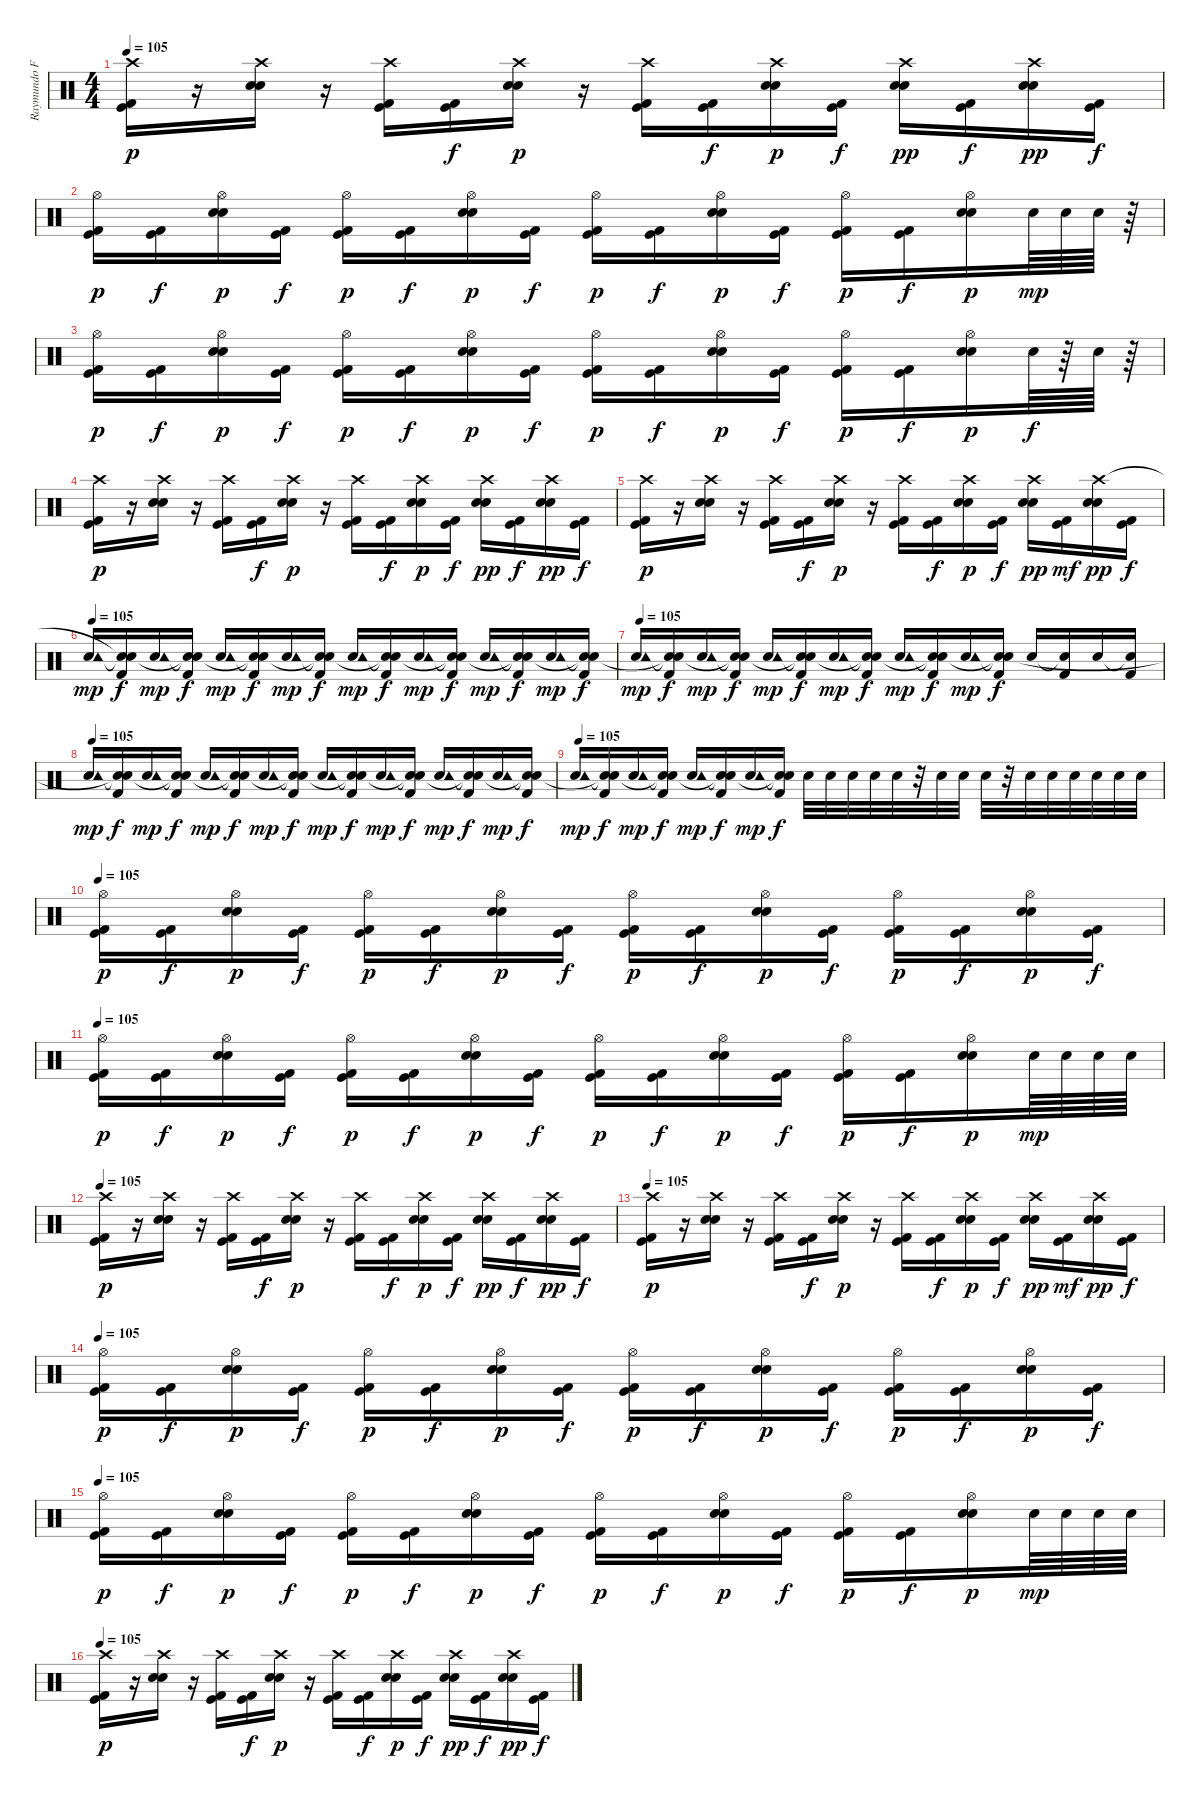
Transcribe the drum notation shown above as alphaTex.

\track ("Raymundo Fajardo (Bateria)" "Raymundo F") {instrument percussion}
\staff {score}
\articulation defaults
\ts (4 4)
\tempo 105
\clef neutral
\ks c
("Kick (hit)" "Kick (hit) 2" "Crash high (hit)").16{dy p} r.16 ("Electric Snare (hit)" "Snare (hit) 2" "Crash high (hit)").16 r.16 ("Kick (hit)" "Kick (hit) 2" "Crash high (hit)").16 ("Kick (hit)" "Kick (hit) 2").16{dy f} ("Electric Snare (hit)" "Snare (hit) 2" "Crash high (hit)").16{dy p} r.16 ("Kick (hit)" "Kick (hit) 2" "Crash high (hit)").16 ("Kick (hit)" "Kick (hit) 2").16{dy f} ("Electric Snare (hit)" "Snare (hit) 2" "Crash high (hit)").16{dy p} ("Kick (hit)" "Kick (hit) 2").16{dy f} ("Electric Snare (hit)" "Snare (hit) 2" "Crash high (hit)").16{dy pp} ("Kick (hit)" "Kick (hit) 2").16{dy f} ("Electric Snare (hit)" "Snare (hit) 2" "Crash high (hit)").16{dy pp} ("Kick (hit)" "Kick (hit) 2").16{dy f} |
("Kick (hit) 2" "Kick (hit)" "Hi-Hat (open)").16{dy p} ("Kick (hit) 2" "Kick (hit)").16{dy f} ("Electric Snare (hit)" "Snare (hit) 2" "Hi-Hat (open)").16{dy p} ("Kick (hit) 2" "Kick (hit)").16{dy f} ("Kick (hit) 2" "Kick (hit)" "Hi-Hat (open)").16{dy p} ("Kick (hit) 2" "Kick (hit)").16{dy f} ("Electric Snare (hit)" "Snare (hit) 2" "Hi-Hat (open)").16{dy p} ("Kick (hit) 2" "Kick (hit)").16{dy f} ("Kick (hit) 2" "Kick (hit)" "Hi-Hat (open)").16{dy p} ("Kick (hit) 2" "Kick (hit)").16{dy f} ("Electric Snare (hit)" "Snare (hit) 2" "Hi-Hat (open)").16{dy p} ("Kick (hit) 2" "Kick (hit)").16{dy f} ("Kick (hit) 2" "Kick (hit)" "Hi-Hat (open)").16{dy p} ("Kick (hit) 2" "Kick (hit)").16{dy f} ("Electric Snare (hit)" "Snare (hit) 2" "Hi-Hat (open)").16{dy p} "Electric Snare (hit)".64{dy mp} "Electric Snare (hit)".64 "Electric Snare (hit)".64 r.64 |
("Kick (hit) 2" "Kick (hit)" "Hi-Hat (open)").16{dy p} ("Kick (hit) 2" "Kick (hit)").16{dy f} ("Electric Snare (hit)" "Snare (hit) 2" "Hi-Hat (open)").16{dy p} ("Kick (hit) 2" "Kick (hit)").16{dy f} ("Kick (hit) 2" "Kick (hit)" "Hi-Hat (open)").16{dy p} ("Kick (hit) 2" "Kick (hit)").16{dy f} ("Electric Snare (hit)" "Snare (hit) 2" "Hi-Hat (open)").16{dy p} ("Kick (hit) 2" "Kick (hit)").16{dy f} ("Kick (hit) 2" "Kick (hit)" "Hi-Hat (open)").16{dy p} ("Kick (hit) 2" "Kick (hit)").16{dy f} ("Electric Snare (hit)" "Snare (hit) 2" "Hi-Hat (open)").16{dy p} ("Kick (hit) 2" "Kick (hit)").16{dy f} ("Kick (hit) 2" "Kick (hit)" "Hi-Hat (open)").16{dy p} ("Kick (hit) 2" "Kick (hit)").16{dy f} ("Electric Snare (hit)" "Snare (hit) 2" "Hi-Hat (open)").16{dy p} "Electric Snare (hit)".64{dy f} r.64 "Electric Snare (hit)".64 r.64 |
("Kick (hit)" "Kick (hit) 2" "Crash high (hit)").16{dy p} r.16 ("Electric Snare (hit)" "Snare (hit) 2" "Crash high (hit)").16 r.16 ("Kick (hit)" "Kick (hit) 2" "Crash high (hit)").16 ("Kick (hit)" "Kick (hit) 2").16{dy f} ("Electric Snare (hit)" "Snare (hit) 2" "Crash high (hit)").16{dy p} r.16 ("Kick (hit)" "Kick (hit) 2" "Crash high (hit)").16 ("Kick (hit)" "Kick (hit) 2").16{dy f} ("Electric Snare (hit)" "Snare (hit) 2" "Crash high (hit)").16{dy p} ("Kick (hit)" "Kick (hit) 2").16{dy f} ("Electric Snare (hit)" "Snare (hit) 2" "Crash high (hit)").16{dy pp} ("Kick (hit)" "Kick (hit) 2").16{dy f} ("Electric Snare (hit)" "Snare (hit) 2" "Crash high (hit)").16{dy pp} ("Kick (hit)" "Kick (hit) 2").16{dy f} |
("Kick (hit)" "Kick (hit) 2" "Crash high (hit)").16{dy p} r.16 ("Electric Snare (hit)" "Snare (hit) 2" "Crash high (hit)").16 r.16 ("Kick (hit)" "Kick (hit) 2" "Crash high (hit)").16 ("Kick (hit)" "Kick (hit) 2").16{dy f} ("Electric Snare (hit)" "Snare (hit) 2" "Crash high (hit)").16{dy p} r.16 ("Kick (hit)" "Kick (hit) 2" "Crash high (hit)").16 ("Kick (hit)" "Kick (hit) 2").16{dy f} ("Electric Snare (hit)" "Snare (hit) 2" "Crash high (hit)").16{dy p} ("Kick (hit)" "Kick (hit) 2").16{dy f} ("Electric Snare (hit)" "Snare (hit) 2" "Crash high (hit)").16{dy pp} ("Kick (hit)" "Kick (hit) 2").16{dy mf} ("Electric Snare (hit)" "Snare (hit) 2" "Crash high (hit)").16{dy pp} ("Kick (hit)" "Kick (hit) 2").16{dy f} |
\tempo 105
("Electric Snare (hit)" "Tambourine (hit)").16{dy mp} ("Snare (hit)"{t} "Kick (hit) 2" "Snare (hit)"{t}).16{dy f} ("Electric Snare (hit)" "Tambourine (hit)").16{dy mp} ("Snare (hit)"{t} "Kick (hit) 2" "Snare (hit)"{t}).16{dy f} ("Electric Snare (hit)" "Tambourine (hit)").16{dy mp} ("Snare (hit)"{t} "Kick (hit) 2" "Snare (hit)"{t}).16{dy f} ("Electric Snare (hit)" "Tambourine (hit)").16{dy mp} ("Snare (hit)"{t} "Kick (hit) 2" "Snare (hit)"{t}).16{dy f} ("Electric Snare (hit)" "Tambourine (hit)").16{dy mp} ("Snare (hit)"{t} "Kick (hit) 2" "Snare (hit)"{t}).16{dy f} ("Electric Snare (hit)" "Tambourine (hit)").16{dy mp} ("Snare (hit)"{t} "Kick (hit) 2" "Snare (hit)"{t}).16{dy f} ("Electric Snare (hit)" "Tambourine (hit)").16{dy mp} ("Snare (hit)"{t} "Kick (hit) 2" "Snare (hit)"{t}).16{dy f} ("Electric Snare (hit)" "Tambourine (hit)").16{dy mp} ("Snare (hit)"{t} "Kick (hit) 2" "Snare (hit)"{t}).16{dy f} |
\tempo 105
("Electric Snare (hit)" "Tambourine (hit)").16{dy mp} ("Snare (hit)"{t} "Kick (hit) 2" "Snare (hit)"{t}).16{dy f} ("Electric Snare (hit)" "Tambourine (hit)").16{dy mp} ("Snare (hit)"{t} "Kick (hit) 2" "Snare (hit)"{t}).16{dy f} ("Electric Snare (hit)" "Tambourine (hit)").16{dy mp} ("Snare (hit)"{t} "Kick (hit) 2" "Snare (hit)"{t}).16{dy f} ("Electric Snare (hit)" "Tambourine (hit)").16{dy mp} ("Snare (hit)"{t} "Kick (hit) 2" "Snare (hit)"{t}).16{dy f} ("Electric Snare (hit)" "Tambourine (hit)").16{dy mp} ("Snare (hit)"{t} "Kick (hit) 2" "Snare (hit)"{t}).16{dy f} ("Electric Snare (hit)" "Tambourine (hit)").16{dy mp} ("Snare (hit)"{t} "Kick (hit) 2" "Snare (hit)"{t}).16{dy f} "Electric Snare (hit)".16 ("Snare (hit)"{t} "Kick (hit) 2").16 "Electric Snare (hit)".16 ("Snare (hit)"{t} "Kick (hit) 2").16 |
\tempo 105
("Electric Snare (hit)" "Tambourine (hit)").16{dy mp} ("Snare (hit)"{t} "Kick (hit) 2" "Snare (hit)"{t}).16{dy f} ("Electric Snare (hit)" "Tambourine (hit)").16{dy mp} ("Snare (hit)"{t} "Kick (hit) 2" "Snare (hit)"{t}).16{dy f} ("Electric Snare (hit)" "Tambourine (hit)").16{dy mp} ("Snare (hit)"{t} "Kick (hit) 2" "Snare (hit)"{t}).16{dy f} ("Electric Snare (hit)" "Tambourine (hit)").16{dy mp} ("Snare (hit)"{t} "Kick (hit) 2" "Snare (hit)"{t}).16{dy f} ("Electric Snare (hit)" "Tambourine (hit)").16{dy mp} ("Snare (hit)"{t} "Kick (hit) 2" "Snare (hit)"{t}).16{dy f} ("Electric Snare (hit)" "Tambourine (hit)").16{dy mp} ("Snare (hit)"{t} "Kick (hit) 2" "Snare (hit)"{t}).16{dy f} ("Electric Snare (hit)" "Tambourine (hit)").16{dy mp} ("Snare (hit)"{t} "Kick (hit) 2" "Snare (hit)"{t}).16{dy f} ("Electric Snare (hit)" "Tambourine (hit)").16{dy mp} ("Snare (hit)"{t} "Kick (hit) 2" "Snare (hit)"{t}).16{dy f} |
\tempo 105
("Electric Snare (hit)" "Tambourine (hit)").16{dy mp} ("Snare (hit)"{t} "Kick (hit) 2" "Snare (hit)"{t}).16{dy f} ("Electric Snare (hit)" "Tambourine (hit)").16{dy mp} ("Snare (hit)"{t} "Kick (hit) 2" "Snare (hit)"{t}).16{dy f} ("Electric Snare (hit)" "Tambourine (hit)").16{dy mp} ("Snare (hit)"{t} "Kick (hit) 2" "Snare (hit)"{t}).16{dy f} ("Electric Snare (hit)" "Tambourine (hit)").16{dy mp} ("Snare (hit)"{t} "Kick (hit) 2" "Snare (hit)"{t}).16{dy f} "Electric Snare (hit)".32 "Electric Snare (hit)".32 "Electric Snare (hit)".32 "Electric Snare (hit)".32 "Electric Snare (hit)".32 r.32 "Electric Snare (hit)".32 "Electric Snare (hit)".32 "Electric Snare (hit)".32 r.32 "Electric Snare (hit)".32 "Electric Snare (hit)".32 "Electric Snare (hit)".32 "Electric Snare (hit)".32 "Electric Snare (hit)".32 "Electric Snare (hit)".32 |
\tempo 105
("Kick (hit) 2" "Kick (hit)" "Hi-Hat (open)").16{dy p} ("Kick (hit) 2" "Kick (hit)").16{dy f} ("Electric Snare (hit)" "Snare (hit) 2" "Hi-Hat (open)").16{dy p} ("Kick (hit) 2" "Kick (hit)").16{dy f} ("Kick (hit) 2" "Kick (hit)" "Hi-Hat (open)").16{dy p} ("Kick (hit) 2" "Kick (hit)").16{dy f} ("Electric Snare (hit)" "Snare (hit) 2" "Hi-Hat (open)").16{dy p} ("Kick (hit) 2" "Kick (hit)").16{dy f} ("Kick (hit) 2" "Kick (hit)" "Hi-Hat (open)").16{dy p} ("Kick (hit) 2" "Kick (hit)").16{dy f} ("Electric Snare (hit)" "Snare (hit) 2" "Hi-Hat (open)").16{dy p} ("Kick (hit) 2" "Kick (hit)").16{dy f} ("Kick (hit) 2" "Kick (hit)" "Hi-Hat (open)").16{dy p} ("Kick (hit) 2" "Kick (hit)").16{dy f} ("Electric Snare (hit)" "Snare (hit) 2" "Hi-Hat (open)").16{dy p} ("Kick (hit) 2" "Kick (hit)").16{dy f} |
\tempo 105
("Kick (hit) 2" "Kick (hit)" "Hi-Hat (open)").16{dy p} ("Kick (hit) 2" "Kick (hit)").16{dy f} ("Electric Snare (hit)" "Snare (hit) 2" "Hi-Hat (open)").16{dy p} ("Kick (hit) 2" "Kick (hit)").16{dy f} ("Kick (hit) 2" "Kick (hit)" "Hi-Hat (open)").16{dy p} ("Kick (hit) 2" "Kick (hit)").16{dy f} ("Electric Snare (hit)" "Snare (hit) 2" "Hi-Hat (open)").16{dy p} ("Kick (hit) 2" "Kick (hit)").16{dy f} ("Kick (hit) 2" "Kick (hit)" "Hi-Hat (open)").16{dy p} ("Kick (hit) 2" "Kick (hit)").16{dy f} ("Electric Snare (hit)" "Snare (hit) 2" "Hi-Hat (open)").16{dy p} ("Kick (hit) 2" "Kick (hit)").16{dy f} ("Kick (hit) 2" "Kick (hit)" "Hi-Hat (open)").16{dy p} ("Kick (hit) 2" "Kick (hit)").16{dy f} ("Electric Snare (hit)" "Snare (hit) 2" "Hi-Hat (open)").16{dy p} "Electric Snare (hit)".64{dy mp} "Electric Snare (hit)".64 "Electric Snare (hit)".64 "Electric Snare (hit)".64 |
\tempo 105
("Kick (hit)" "Kick (hit) 2" "Crash high (hit)").16{dy p} r.16 ("Electric Snare (hit)" "Snare (hit) 2" "Crash high (hit)").16 r.16 ("Kick (hit)" "Kick (hit) 2" "Crash high (hit)").16 ("Kick (hit)" "Kick (hit) 2").16{dy f} ("Electric Snare (hit)" "Snare (hit) 2" "Crash high (hit)").16{dy p} r.16 ("Kick (hit)" "Kick (hit) 2" "Crash high (hit)").16 ("Kick (hit)" "Kick (hit) 2").16{dy f} ("Electric Snare (hit)" "Snare (hit) 2" "Crash high (hit)").16{dy p} ("Kick (hit)" "Kick (hit) 2").16{dy f} ("Electric Snare (hit)" "Snare (hit) 2" "Crash high (hit)").16{dy pp} ("Kick (hit)" "Kick (hit) 2").16{dy f} ("Electric Snare (hit)" "Snare (hit) 2" "Crash high (hit)").16{dy pp} ("Kick (hit)" "Kick (hit) 2").16{dy f} |
\tempo 105
("Kick (hit)" "Kick (hit) 2" "Crash high (hit)").16{dy p} r.16 ("Electric Snare (hit)" "Snare (hit) 2" "Crash high (hit)").16 r.16 ("Kick (hit)" "Kick (hit) 2" "Crash high (hit)").16 ("Kick (hit)" "Kick (hit) 2").16{dy f} ("Electric Snare (hit)" "Snare (hit) 2" "Crash high (hit)").16{dy p} r.16 ("Kick (hit)" "Kick (hit) 2" "Crash high (hit)").16 ("Kick (hit)" "Kick (hit) 2").16{dy f} ("Electric Snare (hit)" "Snare (hit) 2" "Crash high (hit)").16{dy p} ("Kick (hit)" "Kick (hit) 2").16{dy f} ("Electric Snare (hit)" "Snare (hit) 2" "Crash high (hit)").16{dy pp} ("Kick (hit)" "Kick (hit) 2").16{dy mf} ("Electric Snare (hit)" "Snare (hit) 2" "Crash high (hit)").16{dy pp} ("Kick (hit)" "Kick (hit) 2").16{dy f} |
\tempo 105
("Kick (hit) 2" "Kick (hit)" "Hi-Hat (open)").16{dy p} ("Kick (hit) 2" "Kick (hit)").16{dy f} ("Electric Snare (hit)" "Snare (hit) 2" "Hi-Hat (open)").16{dy p} ("Kick (hit) 2" "Kick (hit)").16{dy f} ("Kick (hit) 2" "Kick (hit)" "Hi-Hat (open)").16{dy p} ("Kick (hit) 2" "Kick (hit)").16{dy f} ("Electric Snare (hit)" "Snare (hit) 2" "Hi-Hat (open)").16{dy p} ("Kick (hit) 2" "Kick (hit)").16{dy f} ("Kick (hit) 2" "Kick (hit)" "Hi-Hat (open)").16{dy p} ("Kick (hit) 2" "Kick (hit)").16{dy f} ("Electric Snare (hit)" "Snare (hit) 2" "Hi-Hat (open)").16{dy p} ("Kick (hit) 2" "Kick (hit)").16{dy f} ("Kick (hit) 2" "Kick (hit)" "Hi-Hat (open)").16{dy p} ("Kick (hit) 2" "Kick (hit)").16{dy f} ("Electric Snare (hit)" "Snare (hit) 2" "Hi-Hat (open)").16{dy p} ("Kick (hit) 2" "Kick (hit)").16{dy f} |
\tempo 105
("Kick (hit) 2" "Kick (hit)" "Hi-Hat (open)").16{dy p} ("Kick (hit) 2" "Kick (hit)").16{dy f} ("Electric Snare (hit)" "Snare (hit) 2" "Hi-Hat (open)").16{dy p} ("Kick (hit) 2" "Kick (hit)").16{dy f} ("Kick (hit) 2" "Kick (hit)" "Hi-Hat (open)").16{dy p} ("Kick (hit) 2" "Kick (hit)").16{dy f} ("Electric Snare (hit)" "Snare (hit) 2" "Hi-Hat (open)").16{dy p} ("Kick (hit) 2" "Kick (hit)").16{dy f} ("Kick (hit) 2" "Kick (hit)" "Hi-Hat (open)").16{dy p} ("Kick (hit) 2" "Kick (hit)").16{dy f} ("Electric Snare (hit)" "Snare (hit) 2" "Hi-Hat (open)").16{dy p} ("Kick (hit) 2" "Kick (hit)").16{dy f} ("Kick (hit) 2" "Kick (hit)" "Hi-Hat (open)").16{dy p} ("Kick (hit) 2" "Kick (hit)").16{dy f} ("Electric Snare (hit)" "Snare (hit) 2" "Hi-Hat (open)").16{dy p} "Electric Snare (hit)".64{dy mp} "Electric Snare (hit)".64 "Electric Snare (hit)".64 "Electric Snare (hit)".64 |
\tempo 105
("Kick (hit)" "Kick (hit) 2" "Crash high (hit)").16{dy p} r.16 ("Electric Snare (hit)" "Snare (hit) 2" "Crash high (hit)").16 r.16 ("Kick (hit)" "Kick (hit) 2" "Crash high (hit)").16 ("Kick (hit)" "Kick (hit) 2").16{dy f} ("Electric Snare (hit)" "Snare (hit) 2" "Crash high (hit)").16{dy p} r.16 ("Kick (hit)" "Kick (hit) 2" "Crash high (hit)").16 ("Kick (hit)" "Kick (hit) 2").16{dy f} ("Electric Snare (hit)" "Snare (hit) 2" "Crash high (hit)").16{dy p} ("Kick (hit)" "Kick (hit) 2").16{dy f} ("Electric Snare (hit)" "Snare (hit) 2" "Crash high (hit)").16{dy pp} ("Kick (hit)" "Kick (hit) 2").16{dy f} ("Electric Snare (hit)" "Snare (hit) 2" "Crash high (hit)").16{dy pp} ("Kick (hit)" "Kick (hit) 2").16{dy f}
